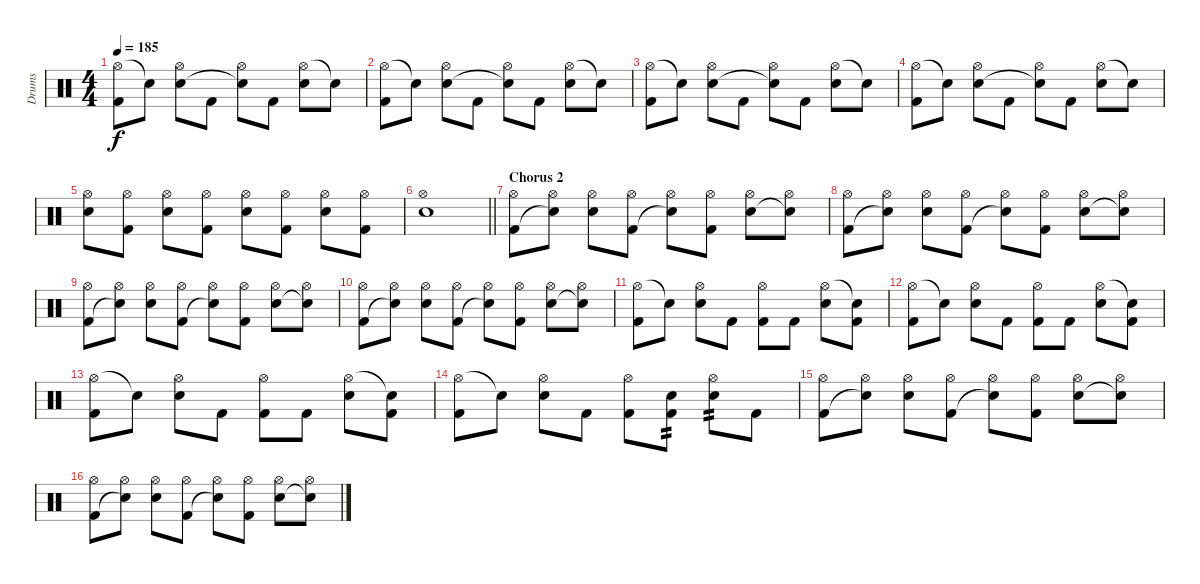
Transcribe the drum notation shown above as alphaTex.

\track ("Drums" "Drums") {instrument percussion}
\staff {score}
\articulation defaults
\ts (4 4)
\tempo 185
\clef neutral
\ks c
("Hi-Hat (open)" "Kick (hit) 2").8{dy f} "Snare (hit)"{t}.8 ("Hi-Hat (open)" "Electric Snare (hit)").8 "Kick (hit) 2".8 ("Hi-Hat (open)" "Snare (hit)"{t}).8 "Kick (hit) 2".8 ("Hi-Hat (open)" "Electric Snare (hit)").8 "Snare (hit)"{t}.8 |
("Hi-Hat (open)" "Kick (hit) 2").8 "Snare (hit)"{t}.8 ("Hi-Hat (open)" "Electric Snare (hit)").8 "Kick (hit) 2".8 ("Hi-Hat (open)" "Snare (hit)"{t}).8 "Kick (hit) 2".8 ("Hi-Hat (open)" "Electric Snare (hit)").8 "Snare (hit)"{t}.8 |
("Hi-Hat (open)" "Kick (hit) 2").8 "Snare (hit)"{t}.8 ("Hi-Hat (open)" "Electric Snare (hit)").8 "Kick (hit) 2".8 ("Hi-Hat (open)" "Snare (hit)"{t}).8 "Kick (hit) 2".8 ("Hi-Hat (open)" "Electric Snare (hit)").8 "Snare (hit)"{t}.8 |
("Hi-Hat (open)" "Kick (hit) 2").8 "Snare (hit)"{t}.8 ("Hi-Hat (open)" "Electric Snare (hit)").8 "Kick (hit) 2".8 ("Hi-Hat (open)" "Snare (hit)"{t}).8 "Kick (hit) 2".8 ("Hi-Hat (open)" "Electric Snare (hit)").8 "Snare (hit)"{t}.8 |
("Hi-Hat (open)" "Electric Snare (hit)").8 ("Hi-Hat (open)" "Kick (hit) 2").8 ("Hi-Hat (open)" "Electric Snare (hit)").8 ("Hi-Hat (open)" "Kick (hit) 2").8 ("Hi-Hat (open)" "Electric Snare (hit)").8 ("Hi-Hat (open)" "Kick (hit) 2").8 ("Hi-Hat (open)" "Electric Snare (hit)").8 ("Hi-Hat (open)" "Kick (hit) 2").8 |
\barLineRight lightlight
("Hi-Hat (open)" "Electric Snare (hit)").1 |
\section ("" "Chorus 2")
("Hi-Hat (open)" "Kick (hit) 2").8 ("Hi-Hat (open)" "Snare (hit)"{t}).8 ("Hi-Hat (open)" "Electric Snare (hit)").8 ("Hi-Hat (open)" "Kick (hit) 2").8 ("Hi-Hat (open)" "Snare (hit)"{t}).8 ("Hi-Hat (open)" "Kick (hit) 2").8 ("Hi-Hat (open)" "Electric Snare (hit)").8 ("Hi-Hat (open)" "Snare (hit)"{t}).8 |
("Hi-Hat (open)" "Kick (hit) 2").8 ("Hi-Hat (open)" "Snare (hit)"{t}).8 ("Hi-Hat (open)" "Electric Snare (hit)").8 ("Hi-Hat (open)" "Kick (hit) 2").8 ("Hi-Hat (open)" "Snare (hit)"{t}).8 ("Hi-Hat (open)" "Kick (hit) 2").8 ("Hi-Hat (open)" "Electric Snare (hit)").8 ("Hi-Hat (open)" "Snare (hit)"{t}).8 |
("Hi-Hat (open)" "Kick (hit) 2").8 ("Hi-Hat (open)" "Snare (hit)"{t}).8 ("Hi-Hat (open)" "Electric Snare (hit)").8 ("Hi-Hat (open)" "Kick (hit) 2").8 ("Hi-Hat (open)" "Snare (hit)"{t}).8 ("Hi-Hat (open)" "Kick (hit) 2").8 ("Hi-Hat (open)" "Electric Snare (hit)").8 ("Hi-Hat (open)" "Snare (hit)"{t}).8 |
("Hi-Hat (open)" "Kick (hit) 2").8 ("Hi-Hat (open)" "Snare (hit)"{t}).8 ("Hi-Hat (open)" "Electric Snare (hit)").8 ("Hi-Hat (open)" "Kick (hit) 2").8 ("Hi-Hat (open)" "Snare (hit)"{t}).8 ("Hi-Hat (open)" "Kick (hit) 2").8 ("Hi-Hat (open)" "Electric Snare (hit)").8 ("Hi-Hat (open)" "Snare (hit)"{t}).8 |
("Hi-Hat (open)" "Kick (hit) 2").8 "Snare (hit)"{t}.8 ("Hi-Hat (open)" "Electric Snare (hit)").8 "Kick (hit) 2".8 ("Hi-Hat (open)" "Kick (hit) 2").8 "Kick (hit) 2".8 ("Hi-Hat (open)" "Electric Snare (hit)").8 ("Snare (hit)"{t} "Kick (hit) 2").8 |
("Hi-Hat (open)" "Kick (hit) 2").8 "Snare (hit)"{t}.8 ("Hi-Hat (open)" "Electric Snare (hit)").8 "Kick (hit) 2".8 ("Hi-Hat (open)" "Kick (hit) 2").8 "Kick (hit) 2".8 ("Hi-Hat (open)" "Electric Snare (hit)").8 ("Snare (hit)"{t} "Kick (hit) 2").8 |
("Hi-Hat (open)" "Kick (hit) 2").8 "Snare (hit)"{t}.8 ("Hi-Hat (open)" "Electric Snare (hit)").8 "Kick (hit) 2".8 ("Hi-Hat (open)" "Kick (hit) 2").8 "Kick (hit) 2".8 ("Hi-Hat (open)" "Electric Snare (hit)").8 ("Snare (hit)"{t} "Kick (hit) 2").8 |
("Hi-Hat (open)" "Kick (hit) 2").8 "Snare (hit)"{t}.8 ("Hi-Hat (open)" "Electric Snare (hit)").8 "Kick (hit) 2".8 ("Hi-Hat (open)" "Kick (hit) 2").8 ("Electric Snare (hit)" "Kick (hit) 2").8{tp 2} ("Hi-Hat (open)" "Electric Snare (hit)").8{tp 2} "Kick (hit) 2".8 |
("Hi-Hat (open)" "Kick (hit) 2").8 ("Hi-Hat (open)" "Snare (hit)"{t}).8 ("Hi-Hat (open)" "Electric Snare (hit)").8 ("Hi-Hat (open)" "Kick (hit) 2").8 ("Hi-Hat (open)" "Snare (hit)"{t}).8 ("Hi-Hat (open)" "Kick (hit) 2").8 ("Hi-Hat (open)" "Electric Snare (hit)").8 ("Hi-Hat (open)" "Snare (hit)"{t}).8 |
("Hi-Hat (open)" "Kick (hit) 2").8 ("Hi-Hat (open)" "Snare (hit)"{t}).8 ("Hi-Hat (open)" "Electric Snare (hit)").8 ("Hi-Hat (open)" "Kick (hit) 2").8 ("Hi-Hat (open)" "Snare (hit)"{t}).8 ("Hi-Hat (open)" "Kick (hit) 2").8 ("Hi-Hat (open)" "Electric Snare (hit)").8 ("Hi-Hat (open)" "Snare (hit)"{t}).8
